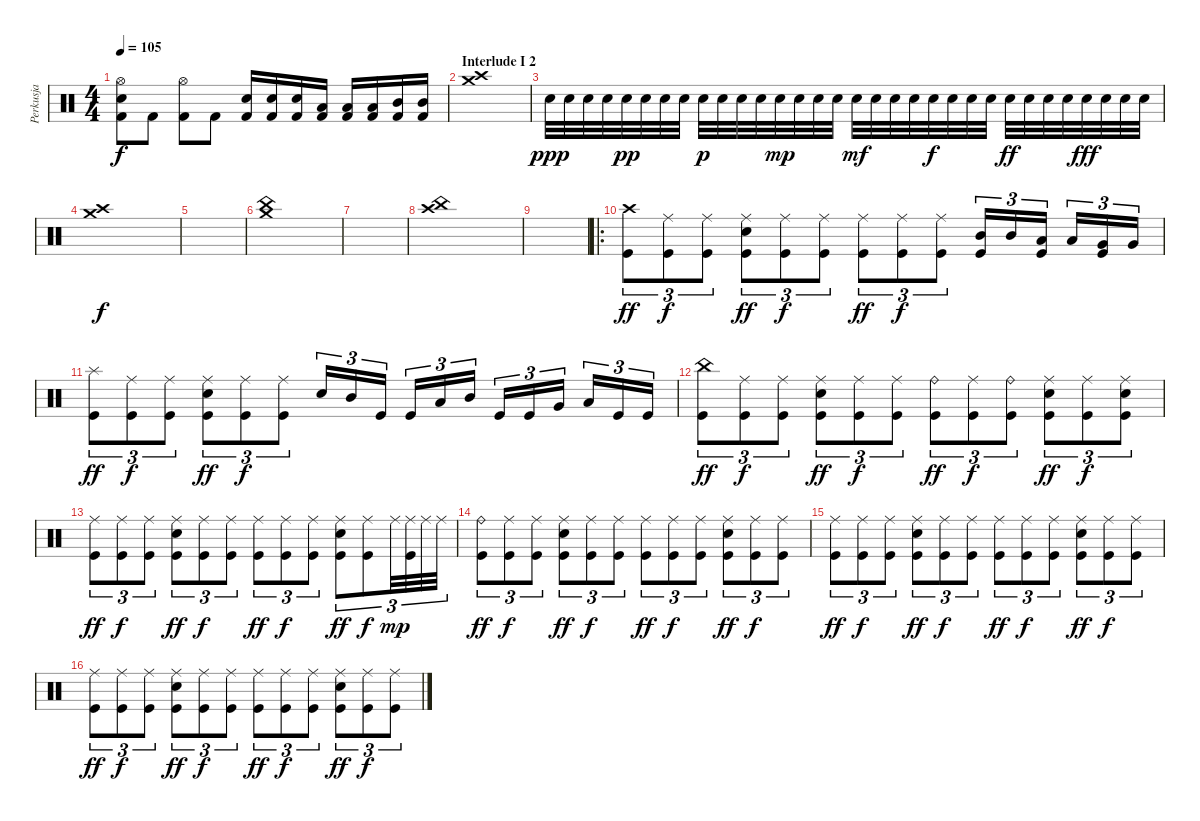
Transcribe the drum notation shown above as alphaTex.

\track ("Perkusja" "Perkusja") {instrument percussion}
\staff {score}
\articulation defaults
\ts (4 4)
\tempo 105
\clef neutral
\ks c
("Kick (hit) 2" "Snare (hit) 2" "Hi-Hat (open)").8{dy f} "Kick (hit) 2".8 ("Kick (hit) 2" "Hi-Hat (open)").8 "Kick (hit) 2".8 ("Kick (hit) 2" "Snare (hit) 2").16 ("Kick (hit) 2" "Snare (hit) 2").16 ("Kick (hit) 2" "Snare (hit) 2").16 ("Kick (hit) 2" "Low Tom (hit)").16 ("Kick (hit) 2" "Low Tom (hit)").16 ("Kick (hit) 2" "Low Tom (hit)").16 ("Kick (hit) 2" "Mid Tom (hit)").16 ("Kick (hit) 2" "Mid Tom (hit)").16 |
\section ("" "Interlude I 2")
("Crash high (hit)" "Crash medium (hit)").1 |
"Snare (hit) 2".32{dy ppp} "Snare (hit) 2".32 "Snare (hit) 2".32 "Snare (hit) 2".32 "Snare (hit) 2".32{dy pp} "Snare (hit) 2".32 "Snare (hit) 2".32 "Snare (hit) 2".32 "Snare (hit) 2".32{dy p} "Snare (hit) 2".32 "Snare (hit) 2".32 "Snare (hit) 2".32 "Snare (hit) 2".32{dy mp} "Snare (hit) 2".32 "Snare (hit) 2".32 "Snare (hit) 2".32 "Snare (hit) 2".32{dy mf} "Snare (hit) 2".32 "Snare (hit) 2".32 "Snare (hit) 2".32 "Snare (hit) 2".32{dy f} "Snare (hit) 2".32 "Snare (hit) 2".32 "Snare (hit) 2".32 "Snare (hit) 2".32{dy ff} "Snare (hit) 2".32 "Snare (hit) 2".32 "Snare (hit) 2".32 "Snare (hit) 2".32{dy fff} "Snare (hit) 2".32 "Snare (hit) 2".32 "Snare (hit) 2".32 |
("Crash high (hit)" "Crash medium (hit)").1{dy f} |
|
("Crash medium (hit)" "China (hit)").1 |
|
("Crash high (hit)" "China (hit)").1 |
|
\ro
("Crash high (hit)" "Kick (hit)").8{tu (3 2) dy ff} ("Ride (middle)" "Kick (hit)").8{tu (3 2) dy f} ("Ride (middle)" "Kick (hit)").8{tu (3 2)} ("Ride (middle)" "Snare (hit) 2" "Kick (hit)").8{tu (3 2) dy ff} ("Ride (middle)" "Kick (hit)").8{tu (3 2) dy f} ("Ride (middle)" "Kick (hit)").8{tu (3 2)} ("Ride (middle)" "Kick (hit)").8{tu (3 2) dy ff} ("Ride (middle)" "Kick (hit)").8{tu (3 2) dy f} ("Ride (middle)" "Kick (hit)").8{tu (3 2)} ("Mid Tom (hit)" "Kick (hit)").16{tu (3 2)} "Mid Tom (hit)".16{tu (3 2)} ("Low Tom (hit)" "Kick (hit)").16{tu (3 2)} "Low Tom (hit)".16{tu (3 2)} ("Very Low Tom (hit)" "Kick (hit)").16{tu (3 2)} "Very Low Tom (hit)".16{tu (3 2)} |
("Splash (hit)" "Kick (hit)").8{tu (3 2) dy ff} ("Ride (middle)" "Kick (hit)").8{tu (3 2) dy f} ("Ride (middle)" "Kick (hit)").8{tu (3 2)} ("Ride (middle)" "Snare (hit) 2" "Kick (hit)").8{tu (3 2) dy ff} ("Ride (middle)" "Kick (hit)").8{tu (3 2) dy f} ("Ride (middle)" "Kick (hit)").8{tu (3 2)} "Snare (hit) 2".16{tu (3 2)} "Mid Tom (hit)".16{tu (3 2)} "Kick (hit)".16{tu (3 2)} "Kick (hit)".16{tu (3 2)} "Low Tom (hit)".16{tu (3 2)} "Mid Tom (hit)".16{tu (3 2)} "Kick (hit)".16{tu (3 2)} "Kick (hit)".16{tu (3 2)} "Very Low Tom (hit)".16{tu (3 2)} "Low Tom (hit)".16{tu (3 2)} "Kick (hit)".16{tu (3 2)} "Kick (hit)".16{tu (3 2)} |
("China (hit)" "Kick (hit)").8{tu (3 2) dy ff} ("Ride (middle)" "Kick (hit)").8{tu (3 2) dy f} ("Ride (middle)" "Kick (hit)").8{tu (3 2)} ("Ride (middle)" "Snare (hit) 2" "Kick (hit)").8{tu (3 2) dy ff} ("Ride (middle)" "Kick (hit)").8{tu (3 2) dy f} ("Ride (middle)" "Kick (hit)").8{tu (3 2)} ("Ride (bell)" "Kick (hit)").8{tu (3 2) dy ff} ("Ride (middle)" "Kick (hit)").8{tu (3 2) dy f} ("Ride (bell)" "Kick (hit)").8{tu (3 2)} ("Ride (middle)" "Snare (hit) 2" "Kick (hit)").8{tu (3 2) dy ff} ("Ride (middle)" "Kick (hit)").8{tu (3 2) dy f} ("Ride (middle)" "Snare (hit) 2" "Kick (hit)").8{tu (3 2)} |
("Ride (middle)" "Kick (hit)").8{tu (3 2) dy ff} ("Ride (middle)" "Kick (hit)").8{tu (3 2) dy f} ("Ride (middle)" "Kick (hit)").8{tu (3 2)} ("Ride (middle)" "Snare (hit) 2" "Kick (hit)").8{tu (3 2) dy ff} ("Ride (middle)" "Kick (hit)").8{tu (3 2) dy f} ("Ride (middle)" "Kick (hit)").8{tu (3 2)} ("Ride (middle)" "Kick (hit)").8{tu (3 2) dy ff} ("Ride (middle)" "Kick (hit)").8{tu (3 2) dy f} ("Ride (middle)" "Kick (hit)").8{tu (3 2)} ("Ride (middle)" "Snare (hit) 2" "Kick (hit)").8{tu (3 2) dy ff} ("Ride (middle)" "Kick (hit)").8{tu (3 2) dy f} "Ride (middle)".32{tu (3 2) dy mp} ("Ride (middle)" "Kick (hit)").32{tu (3 2)} "Ride (middle)".32{tu (3 2)} "Ride (middle)".32{tu (3 2)} |
("Ride (bell)" "Kick (hit)").8{tu (3 2) dy ff} ("Ride (middle)" "Kick (hit)").8{tu (3 2) dy f} ("Ride (middle)" "Kick (hit)").8{tu (3 2)} ("Ride (middle)" "Snare (hit) 2" "Kick (hit)").8{tu (3 2) dy ff} ("Ride (middle)" "Kick (hit)").8{tu (3 2) dy f} ("Ride (middle)" "Kick (hit)").8{tu (3 2)} ("Ride (middle)" "Kick (hit)").8{tu (3 2) dy ff} ("Ride (middle)" "Kick (hit)").8{tu (3 2) dy f} ("Ride (middle)" "Kick (hit)").8{tu (3 2)} ("Ride (middle)" "Snare (hit) 2" "Kick (hit)").8{tu (3 2) dy ff} ("Ride (middle)" "Kick (hit)").8{tu (3 2) dy f} ("Ride (middle)" "Kick (hit)").8{tu (3 2)} |
("Ride (middle)" "Kick (hit)").8{tu (3 2) dy ff} ("Ride (middle)" "Kick (hit)").8{tu (3 2) dy f} ("Ride (middle)" "Kick (hit)").8{tu (3 2)} ("Ride (middle)" "Snare (hit) 2" "Kick (hit)").8{tu (3 2) dy ff} ("Ride (middle)" "Kick (hit)").8{tu (3 2) dy f} ("Ride (middle)" "Kick (hit)").8{tu (3 2)} ("Ride (middle)" "Kick (hit)").8{tu (3 2) dy ff} ("Ride (middle)" "Kick (hit)").8{tu (3 2) dy f} ("Ride (middle)" "Kick (hit)").8{tu (3 2)} ("Ride (middle)" "Snare (hit) 2" "Kick (hit)").8{tu (3 2) dy ff} ("Ride (middle)" "Kick (hit)").8{tu (3 2) dy f} ("Ride (middle)" "Kick (hit)").8{tu (3 2)} |
("Ride (middle)" "Kick (hit)").8{tu (3 2) dy ff} ("Ride (middle)" "Kick (hit)").8{tu (3 2) dy f} ("Ride (middle)" "Kick (hit)").8{tu (3 2)} ("Ride (middle)" "Snare (hit) 2" "Kick (hit)").8{tu (3 2) dy ff} ("Ride (middle)" "Kick (hit)").8{tu (3 2) dy f} ("Ride (middle)" "Kick (hit)").8{tu (3 2)} ("Ride (middle)" "Kick (hit)").8{tu (3 2) dy ff} ("Ride (middle)" "Kick (hit)").8{tu (3 2) dy f} ("Ride (middle)" "Kick (hit)").8{tu (3 2)} ("Ride (middle)" "Snare (hit) 2" "Kick (hit)").8{tu (3 2) dy ff} ("Ride (middle)" "Kick (hit)").8{tu (3 2) dy f} ("Ride (middle)" "Kick (hit)").8{tu (3 2)}
